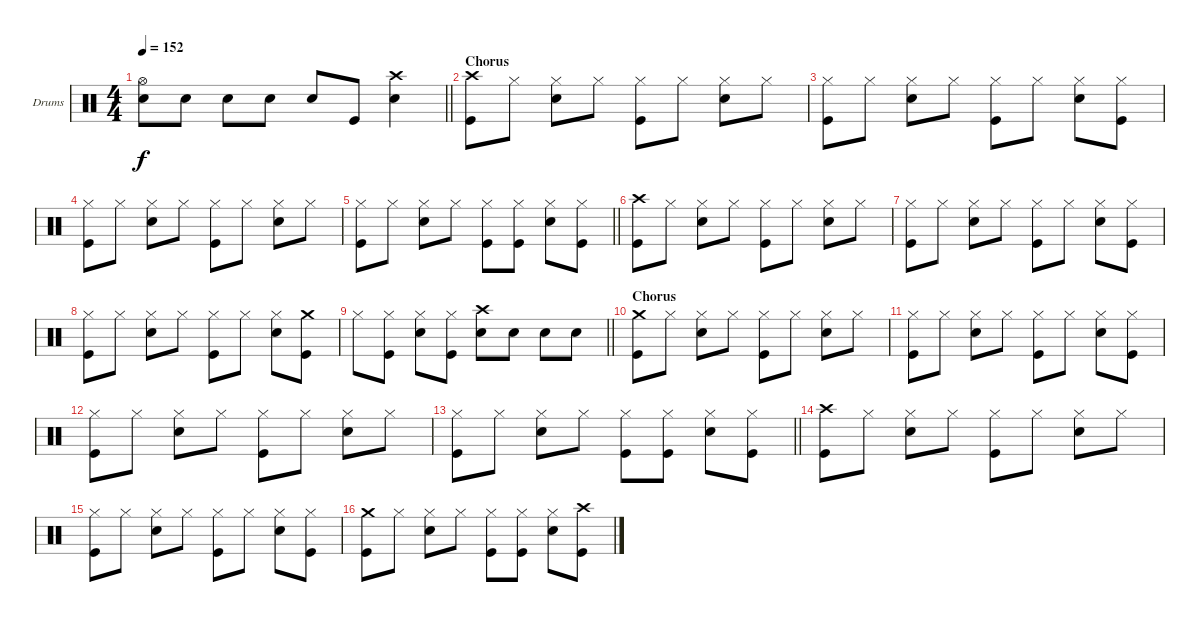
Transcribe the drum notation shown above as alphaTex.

\bracketExtendMode groupsimilarinstruments
\firstSystemTrackNameOrientation horizontal
\otherSystemsTrackNameOrientation horizontal
\track ("Drumkit" "Drums") {instrument percussion}
\staff {score}
\articulation defaults
\ts (4 4)
\tempo 152
\clef neutral
\barLineRight lightlight
\ks c
("Hi-Hat (open)" "Snare (hit) 2").8{dy f} "Snare (hit) 2".8 "Snare (hit) 2".8 "Snare (hit) 2".8 "Snare (hit) 2".8 "Kick (hit)".8 ("Crash high (hit)" "Snare (hit) 2").4 |
\section ("" "Chorus")
("Crash high (hit)" "Kick (hit)").8 "Hi-Hat (closed)".8 ("Hi-Hat (closed)" "Snare (hit) 2").8 "Hi-Hat (closed)".8 ("Hi-Hat (closed)" "Kick (hit)").8 "Hi-Hat (closed)".8 ("Hi-Hat (closed)" "Snare (hit) 2").8 "Hi-Hat (closed)".8 |
("Hi-Hat (closed)" "Kick (hit)").8 "Hi-Hat (closed)".8 ("Hi-Hat (closed)" "Snare (hit) 2").8 "Hi-Hat (closed)".8 ("Hi-Hat (closed)" "Kick (hit)").8 "Hi-Hat (closed)".8 ("Hi-Hat (closed)" "Snare (hit) 2").8 ("Hi-Hat (closed)" "Kick (hit)").8 |
("Hi-Hat (closed)" "Kick (hit)").8 "Hi-Hat (closed)".8 ("Hi-Hat (closed)" "Snare (hit) 2").8 "Hi-Hat (closed)".8 ("Hi-Hat (closed)" "Kick (hit)").8 "Hi-Hat (closed)".8 ("Hi-Hat (closed)" "Snare (hit) 2").8 "Hi-Hat (closed)".8 |
\barLineRight lightlight
("Hi-Hat (closed)" "Kick (hit)").8 "Hi-Hat (closed)".8 ("Hi-Hat (closed)" "Snare (hit) 2").8 "Hi-Hat (closed)".8 ("Hi-Hat (closed)" "Kick (hit)").8 ("Hi-Hat (closed)" "Kick (hit)").8 ("Hi-Hat (closed)" "Snare (hit) 2").8 ("Hi-Hat (closed)" "Kick (hit)").8 |
("Crash high (hit)" "Kick (hit)").8 "Hi-Hat (closed)".8 ("Hi-Hat (closed)" "Snare (hit) 2").8 "Hi-Hat (closed)".8 ("Hi-Hat (closed)" "Kick (hit)").8 "Hi-Hat (closed)".8 ("Hi-Hat (closed)" "Snare (hit) 2").8 "Hi-Hat (closed)".8 |
("Hi-Hat (closed)" "Kick (hit)").8 "Hi-Hat (closed)".8 ("Hi-Hat (closed)" "Snare (hit) 2").8 "Hi-Hat (closed)".8 ("Hi-Hat (closed)" "Kick (hit)").8 "Hi-Hat (closed)".8 ("Hi-Hat (closed)" "Snare (hit) 2").8 ("Hi-Hat (closed)" "Kick (hit)").8 |
("Hi-Hat (closed)" "Kick (hit)").8 "Hi-Hat (closed)".8 ("Hi-Hat (closed)" "Snare (hit) 2").8 "Hi-Hat (closed)".8 ("Hi-Hat (closed)" "Kick (hit)").8 "Hi-Hat (closed)".8 ("Hi-Hat (closed)" "Snare (hit) 2").8 ("Crash medium (hit)" "Kick (hit)").8 |
\barLineRight lightlight "Hi-Hat (closed)".8
("Hi-Hat (closed)" "Kick (hit)").8 ("Hi-Hat (closed)" "Snare (hit) 2").8 ("Hi-Hat (closed)" "Kick (hit)").8 ("Crash high (hit)" "Snare (hit) 2").8 "Snare (hit) 2".8 "Snare (hit) 2".8 "Snare (hit) 2".8 |
\section ("" "Chorus")
("Crash medium (hit)" "Kick (hit)").8 "Hi-Hat (closed)".8 ("Hi-Hat (closed)" "Snare (hit) 2").8 "Hi-Hat (closed)".8 ("Hi-Hat (closed)" "Kick (hit)").8 "Hi-Hat (closed)".8 ("Hi-Hat (closed)" "Snare (hit) 2").8 "Hi-Hat (closed)".8 |
("Hi-Hat (closed)" "Kick (hit)").8 "Hi-Hat (closed)".8 ("Hi-Hat (closed)" "Snare (hit) 2").8 "Hi-Hat (closed)".8 ("Hi-Hat (closed)" "Kick (hit)").8 "Hi-Hat (closed)".8 ("Hi-Hat (closed)" "Snare (hit) 2").8 ("Hi-Hat (closed)" "Kick (hit)").8 |
("Hi-Hat (closed)" "Kick (hit)").8 "Hi-Hat (closed)".8 ("Hi-Hat (closed)" "Snare (hit) 2").8 "Hi-Hat (closed)".8 ("Hi-Hat (closed)" "Kick (hit)").8 "Hi-Hat (closed)".8 ("Hi-Hat (closed)" "Snare (hit) 2").8 "Hi-Hat (closed)".8 |
\barLineRight lightlight
("Hi-Hat (closed)" "Kick (hit)").8 "Hi-Hat (closed)".8 ("Hi-Hat (closed)" "Snare (hit) 2").8 "Hi-Hat (closed)".8 ("Hi-Hat (closed)" "Kick (hit)").8 ("Hi-Hat (closed)" "Kick (hit)").8 ("Hi-Hat (closed)" "Snare (hit) 2").8 ("Hi-Hat (closed)" "Kick (hit)").8 |
("Crash high (hit)" "Kick (hit)").8 "Hi-Hat (closed)".8 ("Hi-Hat (closed)" "Snare (hit) 2").8 "Hi-Hat (closed)".8 ("Hi-Hat (closed)" "Kick (hit)").8 "Hi-Hat (closed)".8 ("Hi-Hat (closed)" "Snare (hit) 2").8 "Hi-Hat (closed)".8 |
("Hi-Hat (closed)" "Kick (hit)").8 "Hi-Hat (closed)".8 ("Hi-Hat (closed)" "Snare (hit) 2").8 "Hi-Hat (closed)".8 ("Hi-Hat (closed)" "Kick (hit)").8 "Hi-Hat (closed)".8 ("Hi-Hat (closed)" "Snare (hit) 2").8 ("Hi-Hat (closed)" "Kick (hit)").8 |
("Crash medium (hit)" "Kick (hit)").8 "Hi-Hat (closed)".8 ("Hi-Hat (closed)" "Snare (hit) 2").8 "Hi-Hat (closed)".8 ("Hi-Hat (closed)" "Kick (hit)").8 ("Hi-Hat (closed)" "Kick (hit)").8 ("Hi-Hat (closed)" "Snare (hit) 2").8 ("Crash high (hit)" "Kick (hit)").8
